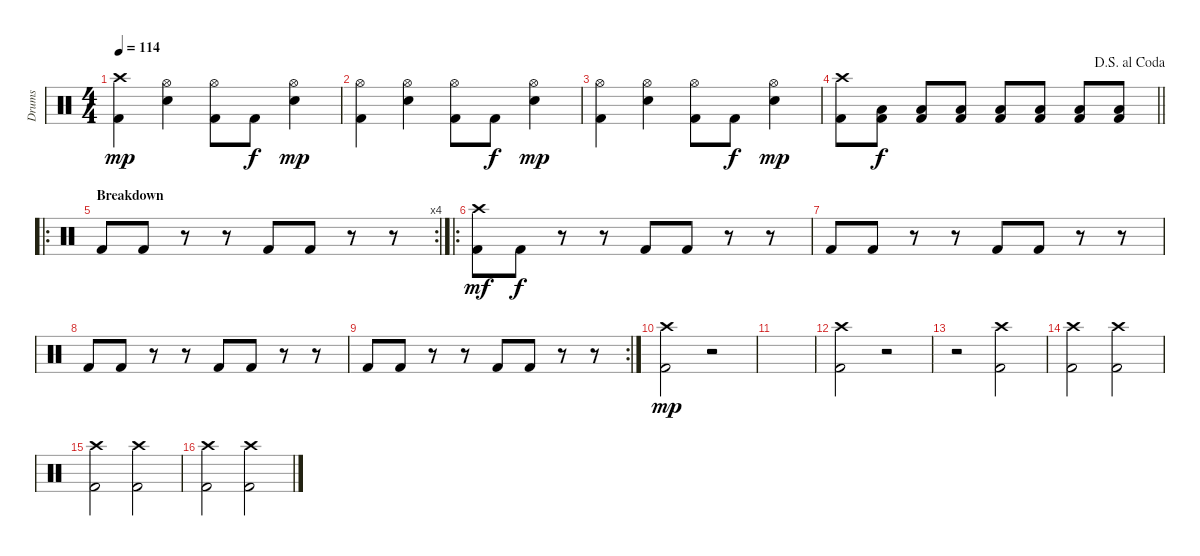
\track ("Drums" "Drums") {instrument percussion}
\staff {score}
\articulation defaults
\ts (4 4)
\tempo 114
\clef neutral
\ks c
("Crash high (hit)" "Kick (hit) 2").4{dy mp} ("Hi-Hat (open)" "Snare (hit) 2").4 ("Hi-Hat (open)" "Kick (hit) 2").8 "Kick (hit) 2".8{dy f} ("Hi-Hat (open)" "Snare (hit) 2").4{dy mp} |
("Hi-Hat (open)" "Kick (hit) 2").4 ("Hi-Hat (open)" "Snare (hit) 2").4 ("Hi-Hat (open)" "Kick (hit) 2").8 "Kick (hit) 2".8{dy f} ("Hi-Hat (open)" "Snare (hit) 2").4{dy mp} |
("Hi-Hat (open)" "Kick (hit) 2").4 ("Hi-Hat (open)" "Snare (hit) 2").4 ("Hi-Hat (open)" "Kick (hit) 2").8 "Kick (hit) 2".8{dy f} ("Hi-Hat (open)" "Snare (hit) 2").4{dy mp} |
\jump dalsegnoalcoda
\barLineRight lightlight
("Crash high (hit)" "Kick (hit) 2").8 ("Low Floor Tom (hit)" "Kick (hit) 2").8{dy f} ("Low Floor Tom (hit)" "Kick (hit) 2").8 ("Low Floor Tom (hit)" "Kick (hit) 2").8 ("Low Floor Tom (hit)" "Kick (hit) 2").8 ("Low Floor Tom (hit)" "Kick (hit) 2").8 ("Low Floor Tom (hit)" "Kick (hit) 2").8 ("Low Floor Tom (hit)" "Kick (hit) 2").8 |
\ro
\rc 4
\section ("" "Breakdown")
"Kick (hit) 2".8 "Kick (hit) 2".8 r.8 r.8 "Kick (hit) 2".8 "Kick (hit) 2".8 r.8 r.8 |
\ro
("Kick (hit) 2" "Crash high (hit)").8{dy mf} "Kick (hit) 2".8{dy f} r.8 r.8 "Kick (hit) 2".8 "Kick (hit) 2".8 r.8 r.8 |
"Kick (hit) 2".8 "Kick (hit) 2".8 r.8 r.8 "Kick (hit) 2".8 "Kick (hit) 2".8 r.8 r.8 |
"Kick (hit) 2".8 "Kick (hit) 2".8 r.8 r.8 "Kick (hit) 2".8 "Kick (hit) 2".8 r.8 r.8 |
\rc 2 "Kick (hit) 2".8 "Kick (hit) 2".8
r.8 r.8 "Kick (hit) 2".8 "Kick (hit) 2".8 r.8 r.8 |
("Crash high (hit)" "Kick (hit) 2").2{dy mp} r.2 |
|
("Crash high (hit)" "Kick (hit) 2").2 r.2 |
r.2 ("Crash high (hit)" "Kick (hit) 2").2 |
("Crash high (hit)" "Kick (hit) 2").2 ("Crash high (hit)" "Kick (hit) 2").2 |
("Crash high (hit)" "Kick (hit) 2").2 ("Crash high (hit)" "Kick (hit) 2").2 |
("Crash high (hit)" "Kick (hit) 2").2 ("Crash high (hit)" "Kick (hit) 2").2
